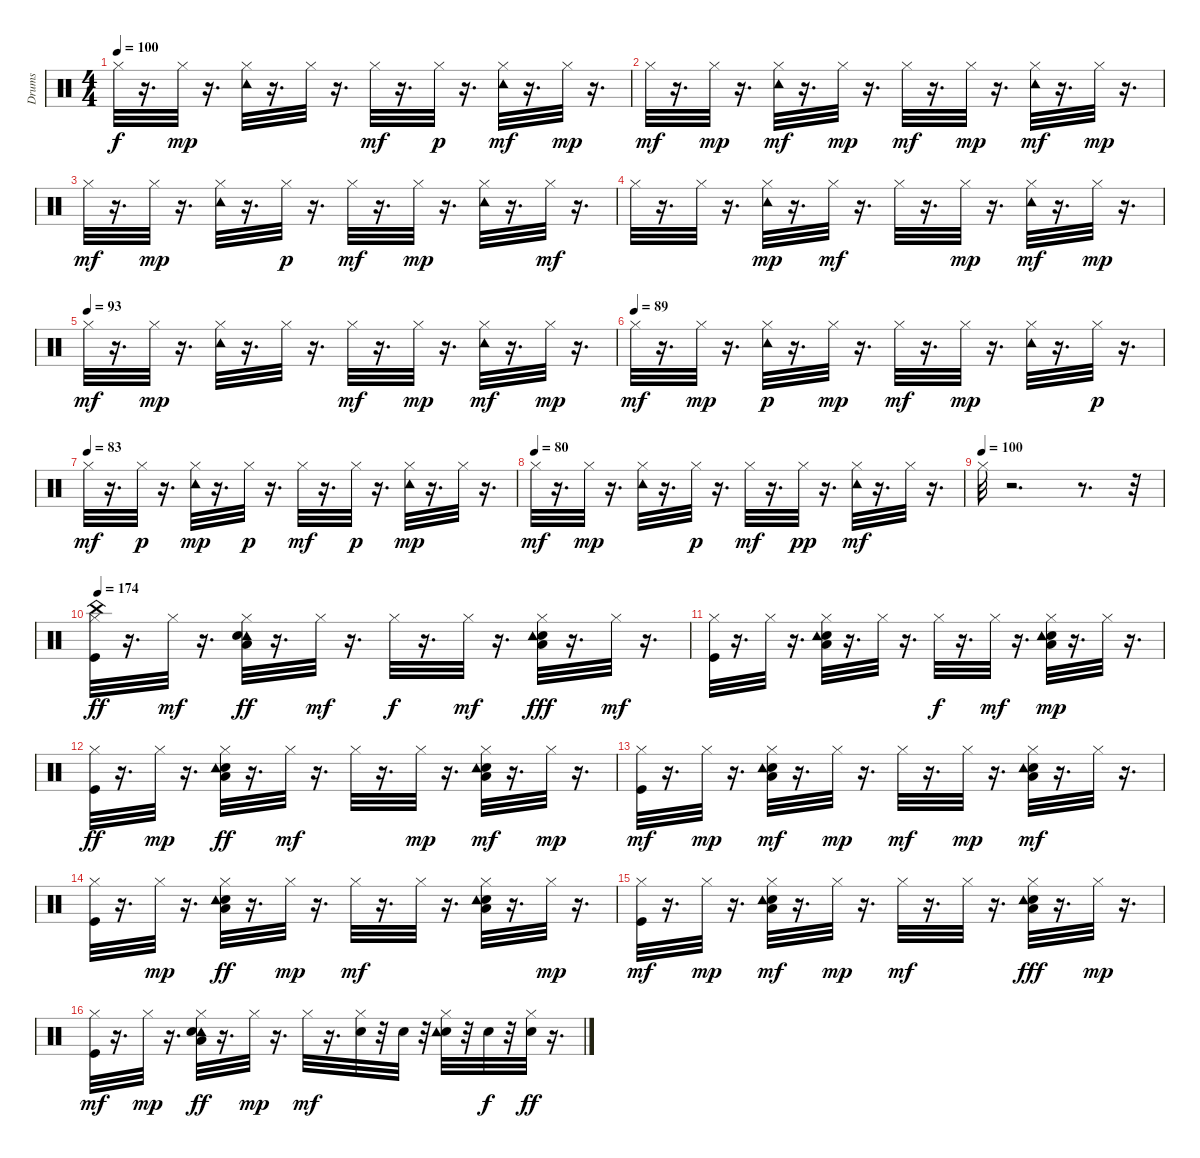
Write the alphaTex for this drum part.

\track ("Drums" "Drums") {instrument percussion}
\staff {score}
\articulation defaults
\ts (4 4)
\tempo 100
\clef neutral
\ks c "Hi-Hat (closed)".32{dy f}
r.16{d} "Hi-Hat (closed)".32{dy mp} r.16{d} ("Tambourine (hit)" "Hi-Hat (closed)").32 r.16{d} "Hi-Hat (closed)".32 r.16{d} "Hi-Hat (closed)".32{dy mf} r.16{d} "Hi-Hat (closed)".32{dy p} r.16{d} ("Tambourine (hit)" "Hi-Hat (closed)").32{dy mf} r.16{d} "Hi-Hat (closed)".32{dy mp} r.16{d} |
"Hi-Hat (closed)".32{dy mf} r.16{d} "Hi-Hat (closed)".32{dy mp} r.16{d} ("Tambourine (hit)" "Hi-Hat (closed)").32{dy mf} r.16{d} "Hi-Hat (closed)".32{dy mp} r.16{d} "Hi-Hat (closed)".32{dy mf} r.16{d} "Hi-Hat (closed)".32{dy mp} r.16{d} ("Hi-Hat (closed)" "Tambourine (hit)").32{dy mf} r.16{d} "Hi-Hat (closed)".32{dy mp} r.16{d} |
"Hi-Hat (closed)".32{dy mf} r.16{d} "Hi-Hat (closed)".32{dy mp} r.16{d} ("Tambourine (hit)" "Hi-Hat (closed)").32 r.16{d} "Hi-Hat (closed)".32{dy p} r.16{d} "Hi-Hat (closed)".32{dy mf} r.16{d} "Hi-Hat (closed)".32{dy mp} r.16{d} ("Tambourine (hit)" "Hi-Hat (closed)").32 r.16{d} "Hi-Hat (closed)".32{dy mf} r.16{d} |
"Hi-Hat (closed)".32 r.16{d} "Hi-Hat (closed)".32 r.16{d} ("Hi-Hat (closed)" "Tambourine (hit)").32{dy mp} r.16{d} "Hi-Hat (closed)".32{dy mf} r.16{d} "Hi-Hat (closed)".32 r.16{d} "Hi-Hat (closed)".32{dy mp} r.16{d} ("Hi-Hat (closed)" "Tambourine (hit)").32{dy mf} r.16{d} "Hi-Hat (closed)".32{dy mp} r.16{d} |
\tempo (93)
"Hi-Hat (closed)".32{dy mf} r.16{d} "Hi-Hat (closed)".32{dy mp} r.16{d} ("Hi-Hat (closed)" "Tambourine (hit)").32 r.16{d} "Hi-Hat (closed)".32 r.16{d} "Hi-Hat (closed)".32{dy mf} r.16{d} "Hi-Hat (closed)".32{dy mp} r.16{d} ("Hi-Hat (closed)" "Tambourine (hit)").32{dy mf} r.16{d} "Hi-Hat (closed)".32{dy mp} r.16{d} |
\tempo (89)
"Hi-Hat (closed)".32{dy mf} r.16{d} "Hi-Hat (closed)".32{dy mp} r.16{d} ("Hi-Hat (closed)" "Tambourine (hit)").32{dy p} r.16{d} "Hi-Hat (closed)".32{dy mp} r.16{d} "Hi-Hat (closed)".32{dy mf} r.16{d} "Hi-Hat (closed)".32{dy mp} r.16{d} ("Hi-Hat (closed)" "Tambourine (hit)").32 r.16{d} "Hi-Hat (closed)".32{dy p} r.16{d} |
\tempo (83)
"Hi-Hat (closed)".32{dy mf} r.16{d} "Hi-Hat (closed)".32{dy p} r.16{d} ("Hi-Hat (closed)" "Tambourine (hit)").32{dy mp} r.16{d} "Hi-Hat (closed)".32{dy p} r.16{d} "Hi-Hat (closed)".32{dy mf} r.16{d} "Hi-Hat (closed)".32{dy p} r.16{d} ("Hi-Hat (closed)" "Tambourine (hit)").32{dy mp} r.16{d} "Hi-Hat (closed)".32 r.16{d} |
\tempo (80)
"Hi-Hat (closed)".32{dy mf} r.16{d} "Hi-Hat (closed)".32{dy mp} r.16{d} ("Tambourine (hit)" "Hi-Hat (closed)").32 r.16{d} "Hi-Hat (closed)".32{dy p} r.16{d} "Hi-Hat (closed)".32{dy mf} r.16{d} "Hi-Hat (closed)".32{dy pp} r.16{d} ("Hi-Hat (closed)" "Tambourine (hit)").32{dy mf} r.16{d} "Hi-Hat (closed)".32 r.16{d} |
\tempo (100)
"Hi-Hat (closed)".32 r.2{d} r.8{d} r.32 |
\tempo 174
("Kick (hit)" "Hi-Hat (closed)" "China (hit)").32{dy ff} r.16{d} "Hi-Hat (closed)".32{dy mf} r.16{d} ("Tambourine (hit)" "Low Tom (hit)" "Hi-Hat (closed)" "Electric Snare (hit)").32{dy ff} r.16{d} "Hi-Hat (closed)".32{dy mf} r.16{d} "Hi-Hat (closed)".32{dy f} r.16{d} "Hi-Hat (closed)".32{dy mf} r.16{d} ("Low Tom (hit)" "Hi-Hat (closed)" "Electric Snare (hit)" "Tambourine (hit)").32{dy fff} r.16{d} "Hi-Hat (closed)".32{dy mf} r.16{d} |
("Kick (hit)" "Hi-Hat (closed)").32 r.16{d} "Hi-Hat (closed)".32 r.16{d} ("Low Tom (hit)" "Hi-Hat (closed)" "Electric Snare (hit)" "Tambourine (hit)").32 r.16{d} "Hi-Hat (closed)".32 r.16{d} "Hi-Hat (closed)".32{dy f} r.16{d} "Hi-Hat (closed)".32{dy mf} r.16{d} ("Low Tom (hit)" "Hi-Hat (closed)" "Electric Snare (hit)" "Tambourine (hit)").32{dy mp} r.16{d} "Hi-Hat (closed)".32 r.16{d} |
("Kick (hit)" "Hi-Hat (closed)").32{dy ff} r.16{d} "Hi-Hat (closed)".32{dy mp} r.16{d} ("Low Tom (hit)" "Hi-Hat (closed)" "Electric Snare (hit)" "Tambourine (hit)").32{dy ff} r.16{d} "Hi-Hat (closed)".32{dy mf} r.16{d} "Hi-Hat (closed)".32 r.16{d} "Hi-Hat (closed)".32{dy mp} r.16{d} ("Low Tom (hit)" "Hi-Hat (closed)" "Electric Snare (hit)" "Tambourine (hit)").32{dy mf} r.16{d} "Hi-Hat (closed)".32{dy mp} r.16{d} |
("Kick (hit)" "Hi-Hat (closed)").32{dy mf} r.16{d} "Hi-Hat (closed)".32{dy mp} r.16{d} ("Low Tom (hit)" "Hi-Hat (closed)" "Electric Snare (hit)" "Tambourine (hit)").32{dy mf} r.16{d} "Hi-Hat (closed)".32{dy mp} r.16{d} "Hi-Hat (closed)".32{dy mf} r.16{d} "Hi-Hat (closed)".32{dy mp} r.16{d} ("Low Tom (hit)" "Hi-Hat (closed)" "Electric Snare (hit)" "Tambourine (hit)").32{dy mf} r.16{d} "Hi-Hat (closed)".32 r.16{d} |
("Kick (hit)" "Hi-Hat (closed)").32 r.16{d} "Hi-Hat (closed)".32{dy mp} r.16{d} ("Low Tom (hit)" "Hi-Hat (closed)" "Electric Snare (hit)" "Tambourine (hit)").32{dy ff} r.16{d} "Hi-Hat (closed)".32{dy mp} r.16{d} "Hi-Hat (closed)".32{dy mf} r.16{d} "Hi-Hat (closed)".32 r.16{d} ("Low Tom (hit)" "Hi-Hat (closed)" "Electric Snare (hit)" "Tambourine (hit)").32 r.16{d} "Hi-Hat (closed)".32{dy mp} r.16{d} |
("Kick (hit)" "Hi-Hat (closed)").32{dy mf} r.16{d} "Hi-Hat (closed)".32{dy mp} r.16{d} ("Low Tom (hit)" "Hi-Hat (closed)" "Electric Snare (hit)" "Tambourine (hit)").32{dy mf} r.16{d} "Hi-Hat (closed)".32{dy mp} r.16{d} "Hi-Hat (closed)".32{dy mf} r.16{d} "Hi-Hat (closed)".32 r.16{d} ("Low Tom (hit)" "Hi-Hat (closed)" "Electric Snare (hit)" "Tambourine (hit)").32{dy fff} r.16{d} "Hi-Hat (closed)".32{dy mp} r.16{d} |
("Kick (hit)" "Hi-Hat (closed)").32{dy mf} r.16{d} "Hi-Hat (closed)".32{dy mp} r.16{d} ("Tambourine (hit)" "Low Tom (hit)" "Hi-Hat (closed)" "Electric Snare (hit)").32{dy ff} r.16{d} "Hi-Hat (closed)".32{dy mp} r.16{d} "Hi-Hat (closed)".32{dy mf} r.16{d} ("Hi-Hat (closed)" "Electric Snare (hit)").32 r.32 "Electric Snare (hit)".32 r.32 ("Hi-Hat (closed)" "Electric Snare (hit)" "Tambourine (hit)").32 r.32 "Electric Snare (hit)".32{dy f} r.32 ("Hi-Hat (closed)" "Electric Snare (hit)").32{dy ff} r.16{d}
